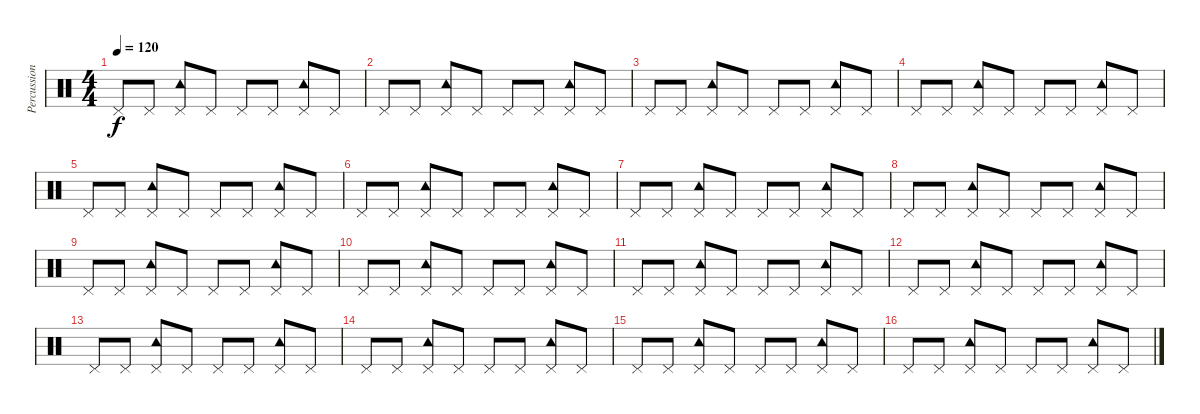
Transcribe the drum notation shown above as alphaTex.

\track ("Percussioni" "Percussion") {instrument percussion}
\staff {score}
\articulation defaults
\ts (4 4)
\tempo 120
\clef neutral
\ks c "Pedal Hi-Hat (hit)".8{dy f} "Pedal Hi-Hat (hit)".8
("Pedal Hi-Hat (hit)" "Tambourine (hit)").8 "Pedal Hi-Hat (hit)".8 "Pedal Hi-Hat (hit)".8 "Pedal Hi-Hat (hit)".8 ("Pedal Hi-Hat (hit)" "Tambourine (hit)").8 "Pedal Hi-Hat (hit)".8 |
"Pedal Hi-Hat (hit)".8 "Pedal Hi-Hat (hit)".8 ("Pedal Hi-Hat (hit)" "Tambourine (hit)").8 "Pedal Hi-Hat (hit)".8 "Pedal Hi-Hat (hit)".8 "Pedal Hi-Hat (hit)".8 ("Pedal Hi-Hat (hit)" "Tambourine (hit)").8 "Pedal Hi-Hat (hit)".8 |
"Pedal Hi-Hat (hit)".8 "Pedal Hi-Hat (hit)".8 ("Pedal Hi-Hat (hit)" "Tambourine (hit)").8 "Pedal Hi-Hat (hit)".8 "Pedal Hi-Hat (hit)".8 "Pedal Hi-Hat (hit)".8 ("Pedal Hi-Hat (hit)" "Tambourine (hit)").8 "Pedal Hi-Hat (hit)".8 |
"Pedal Hi-Hat (hit)".8 "Pedal Hi-Hat (hit)".8 ("Pedal Hi-Hat (hit)" "Tambourine (hit)").8 "Pedal Hi-Hat (hit)".8 "Pedal Hi-Hat (hit)".8 "Pedal Hi-Hat (hit)".8 ("Pedal Hi-Hat (hit)" "Tambourine (hit)").8 "Pedal Hi-Hat (hit)".8 |
"Pedal Hi-Hat (hit)".8 "Pedal Hi-Hat (hit)".8 ("Pedal Hi-Hat (hit)" "Tambourine (hit)").8 "Pedal Hi-Hat (hit)".8 "Pedal Hi-Hat (hit)".8 "Pedal Hi-Hat (hit)".8 ("Pedal Hi-Hat (hit)" "Tambourine (hit)").8 "Pedal Hi-Hat (hit)".8 |
"Pedal Hi-Hat (hit)".8 "Pedal Hi-Hat (hit)".8 ("Pedal Hi-Hat (hit)" "Tambourine (hit)").8 "Pedal Hi-Hat (hit)".8 "Pedal Hi-Hat (hit)".8 "Pedal Hi-Hat (hit)".8 ("Pedal Hi-Hat (hit)" "Tambourine (hit)").8 "Pedal Hi-Hat (hit)".8 |
"Pedal Hi-Hat (hit)".8 "Pedal Hi-Hat (hit)".8 ("Pedal Hi-Hat (hit)" "Tambourine (hit)").8 "Pedal Hi-Hat (hit)".8 "Pedal Hi-Hat (hit)".8 "Pedal Hi-Hat (hit)".8 ("Pedal Hi-Hat (hit)" "Tambourine (hit)").8 "Pedal Hi-Hat (hit)".8 |
"Pedal Hi-Hat (hit)".8 "Pedal Hi-Hat (hit)".8 ("Pedal Hi-Hat (hit)" "Tambourine (hit)").8 "Pedal Hi-Hat (hit)".8 "Pedal Hi-Hat (hit)".8 "Pedal Hi-Hat (hit)".8 ("Pedal Hi-Hat (hit)" "Tambourine (hit)").8 "Pedal Hi-Hat (hit)".8 |
"Pedal Hi-Hat (hit)".8 "Pedal Hi-Hat (hit)".8 ("Pedal Hi-Hat (hit)" "Tambourine (hit)").8 "Pedal Hi-Hat (hit)".8 "Pedal Hi-Hat (hit)".8 "Pedal Hi-Hat (hit)".8 ("Pedal Hi-Hat (hit)" "Tambourine (hit)").8 "Pedal Hi-Hat (hit)".8 |
"Pedal Hi-Hat (hit)".8 "Pedal Hi-Hat (hit)".8 ("Pedal Hi-Hat (hit)" "Tambourine (hit)").8 "Pedal Hi-Hat (hit)".8 "Pedal Hi-Hat (hit)".8 "Pedal Hi-Hat (hit)".8 ("Pedal Hi-Hat (hit)" "Tambourine (hit)").8 "Pedal Hi-Hat (hit)".8 |
"Pedal Hi-Hat (hit)".8 "Pedal Hi-Hat (hit)".8 ("Pedal Hi-Hat (hit)" "Tambourine (hit)").8 "Pedal Hi-Hat (hit)".8 "Pedal Hi-Hat (hit)".8 "Pedal Hi-Hat (hit)".8 ("Pedal Hi-Hat (hit)" "Tambourine (hit)").8 "Pedal Hi-Hat (hit)".8 |
"Pedal Hi-Hat (hit)".8 "Pedal Hi-Hat (hit)".8 ("Pedal Hi-Hat (hit)" "Tambourine (hit)").8 "Pedal Hi-Hat (hit)".8 "Pedal Hi-Hat (hit)".8 "Pedal Hi-Hat (hit)".8 ("Pedal Hi-Hat (hit)" "Tambourine (hit)").8 "Pedal Hi-Hat (hit)".8 |
"Pedal Hi-Hat (hit)".8 "Pedal Hi-Hat (hit)".8 ("Pedal Hi-Hat (hit)" "Tambourine (hit)").8 "Pedal Hi-Hat (hit)".8 "Pedal Hi-Hat (hit)".8 "Pedal Hi-Hat (hit)".8 ("Pedal Hi-Hat (hit)" "Tambourine (hit)").8 "Pedal Hi-Hat (hit)".8 |
"Pedal Hi-Hat (hit)".8 "Pedal Hi-Hat (hit)".8 ("Pedal Hi-Hat (hit)" "Tambourine (hit)").8 "Pedal Hi-Hat (hit)".8 "Pedal Hi-Hat (hit)".8 "Pedal Hi-Hat (hit)".8 ("Pedal Hi-Hat (hit)" "Tambourine (hit)").8 "Pedal Hi-Hat (hit)".8 |
"Pedal Hi-Hat (hit)".8 "Pedal Hi-Hat (hit)".8 ("Pedal Hi-Hat (hit)" "Tambourine (hit)").8 "Pedal Hi-Hat (hit)".8 "Pedal Hi-Hat (hit)".8 "Pedal Hi-Hat (hit)".8 ("Pedal Hi-Hat (hit)" "Tambourine (hit)").8 "Pedal Hi-Hat (hit)".8 |
"Pedal Hi-Hat (hit)".8 "Pedal Hi-Hat (hit)".8 ("Pedal Hi-Hat (hit)" "Tambourine (hit)").8 "Pedal Hi-Hat (hit)".8 "Pedal Hi-Hat (hit)".8 "Pedal Hi-Hat (hit)".8 ("Pedal Hi-Hat (hit)" "Tambourine (hit)").8 "Pedal Hi-Hat (hit)".8
